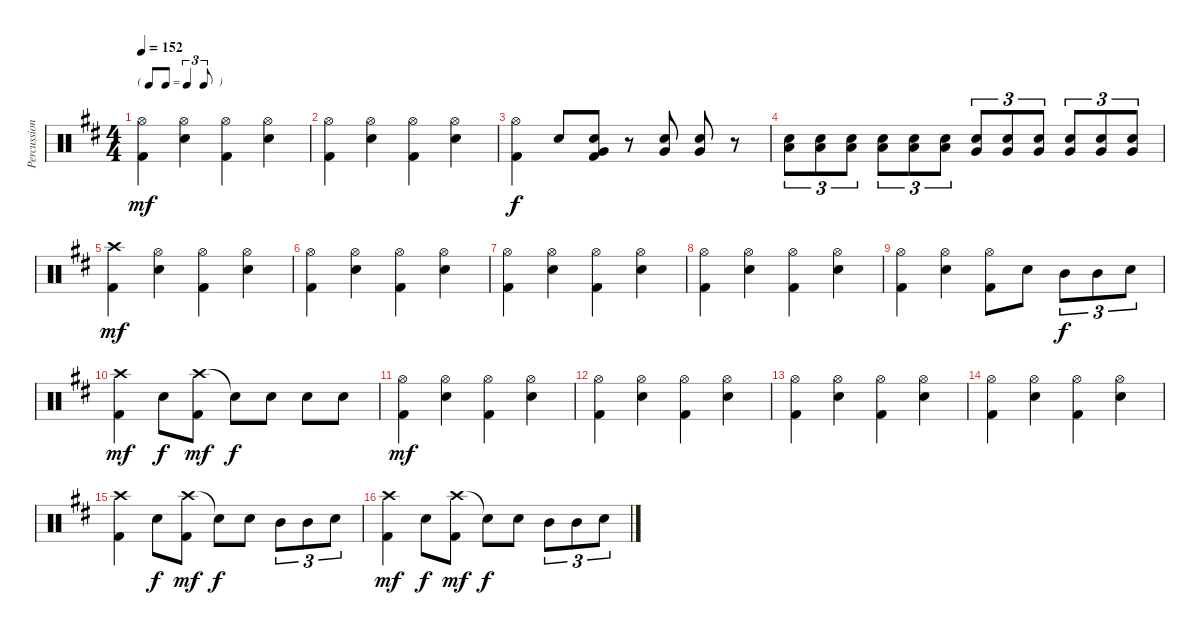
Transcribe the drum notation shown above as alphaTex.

\track ("Percussion" "Percussion") {instrument percussion}
\staff {score}
\articulation defaults
\ts (4 4)
\tf triplet8th
\tempo 152
\clef neutral
\ks d
("Hi-Hat (open)" "Kick (hit) 2").4{dy mf} ("Hi-Hat (open)" "Snare (hit) 2").4 ("Hi-Hat (open)" "Kick (hit) 2").4 ("Hi-Hat (open)" "Snare (hit) 2").4 |
("Hi-Hat (open)" "Kick (hit) 2").4 ("Hi-Hat (open)" "Snare (hit) 2").4 ("Hi-Hat (open)" "Kick (hit) 2").4 ("Hi-Hat (open)" "Snare (hit) 2").4 |
("Hi-Hat (open)" "Kick (hit) 2").4{dy f} "Snare (hit) 2".8 ("Snare (hit) 2" "Very Low Tom (hit)" "Kick (hit) 2").8 r.8 ("Snare (hit) 2" "Very Low Tom (hit)").8 ("Snare (hit) 2" "Very Low Tom (hit)").8 r.8 |
("Low Tom (hit)" "Snare (hit) 2").8{tu (3 2)} ("Low Tom (hit)" "Snare (hit) 2").8{tu (3 2)} ("Low Tom (hit)" "Snare (hit) 2").8{tu (3 2)} ("Low Tom (hit)" "Snare (hit) 2").8{tu (3 2)} ("Low Tom (hit)" "Snare (hit) 2").8{tu (3 2)} ("Low Tom (hit)" "Snare (hit) 2").8{tu (3 2)} ("Snare (hit) 2" "Very Low Tom (hit)").8{tu (3 2)} ("Snare (hit) 2" "Very Low Tom (hit)").8{tu (3 2)} ("Snare (hit) 2" "Very Low Tom (hit)").8{tu (3 2)} ("Snare (hit) 2" "Very Low Tom (hit)").8{tu (3 2)} ("Snare (hit) 2" "Very Low Tom (hit)").8{tu (3 2)} ("Snare (hit) 2" "Very Low Tom (hit)").8{tu (3 2)} |
("Crash high (hit)" "Kick (hit) 2").4{dy mf} ("Hi-Hat (open)" "Snare (hit) 2").4 ("Hi-Hat (open)" "Kick (hit) 2").4 ("Hi-Hat (open)" "Snare (hit) 2").4 |
("Hi-Hat (open)" "Kick (hit) 2").4 ("Hi-Hat (open)" "Snare (hit) 2").4 ("Hi-Hat (open)" "Kick (hit) 2").4 ("Hi-Hat (open)" "Snare (hit) 2").4 |
("Hi-Hat (open)" "Kick (hit) 2").4 ("Hi-Hat (open)" "Snare (hit) 2").4 ("Hi-Hat (open)" "Kick (hit) 2").4 ("Hi-Hat (open)" "Snare (hit) 2").4 |
("Hi-Hat (open)" "Kick (hit) 2").4 ("Hi-Hat (open)" "Snare (hit) 2").4 ("Hi-Hat (open)" "Kick (hit) 2").4 ("Hi-Hat (open)" "Snare (hit) 2").4 |
("Hi-Hat (open)" "Kick (hit) 2").4 ("Hi-Hat (open)" "Snare (hit) 2").4 ("Hi-Hat (open)" "Kick (hit) 2").8 "Snare (hit) 2".8 "Mid Tom (hit)".8{tu (3 2) dy f} "Mid Tom (hit)".8{tu (3 2)} "Snare (hit) 2".8{tu (3 2)} |
("Crash high (hit)" "Kick (hit) 2").4{dy mf} "Snare (hit) 2".8{dy f} ("Crash high (hit)" "Kick (hit) 2").8{dy mf} "Snare (hit)"{t}.8{dy f} "Snare (hit) 2".8 "Snare (hit) 2".8 "Snare (hit) 2".8 |
("Hi-Hat (open)" "Kick (hit) 2").4{dy mf} ("Hi-Hat (open)" "Snare (hit) 2").4 ("Hi-Hat (open)" "Kick (hit) 2").4 ("Hi-Hat (open)" "Snare (hit) 2").4 |
("Hi-Hat (open)" "Kick (hit) 2").4 ("Hi-Hat (open)" "Snare (hit) 2").4 ("Hi-Hat (open)" "Kick (hit) 2").4 ("Hi-Hat (open)" "Snare (hit) 2").4 |
("Hi-Hat (open)" "Kick (hit) 2").4 ("Hi-Hat (open)" "Snare (hit) 2").4 ("Hi-Hat (open)" "Kick (hit) 2").4 ("Hi-Hat (open)" "Snare (hit) 2").4 |
("Hi-Hat (open)" "Kick (hit) 2").4 ("Hi-Hat (open)" "Snare (hit) 2").4 ("Hi-Hat (open)" "Kick (hit) 2").4 ("Hi-Hat (open)" "Snare (hit) 2").4 |
("Crash high (hit)" "Kick (hit) 2").4 "Snare (hit) 2".8{dy f} ("Crash high (hit)" "Kick (hit) 2").8{dy mf} "Snare (hit)"{t}.8{dy f} "Snare (hit) 2".8 "Mid Tom (hit)".8{tu (3 2)} "Mid Tom (hit)".8{tu (3 2)} "Snare (hit) 2".8{tu (3 2)} |
("Crash high (hit)" "Kick (hit) 2").4{dy mf} "Snare (hit) 2".8{dy f} ("Crash high (hit)" "Kick (hit) 2").8{dy mf} "Snare (hit)"{t}.8{dy f} "Snare (hit) 2".8 "Mid Tom (hit)".8{tu (3 2)} "Mid Tom (hit)".8{tu (3 2)} "Snare (hit) 2".8{tu (3 2)}
